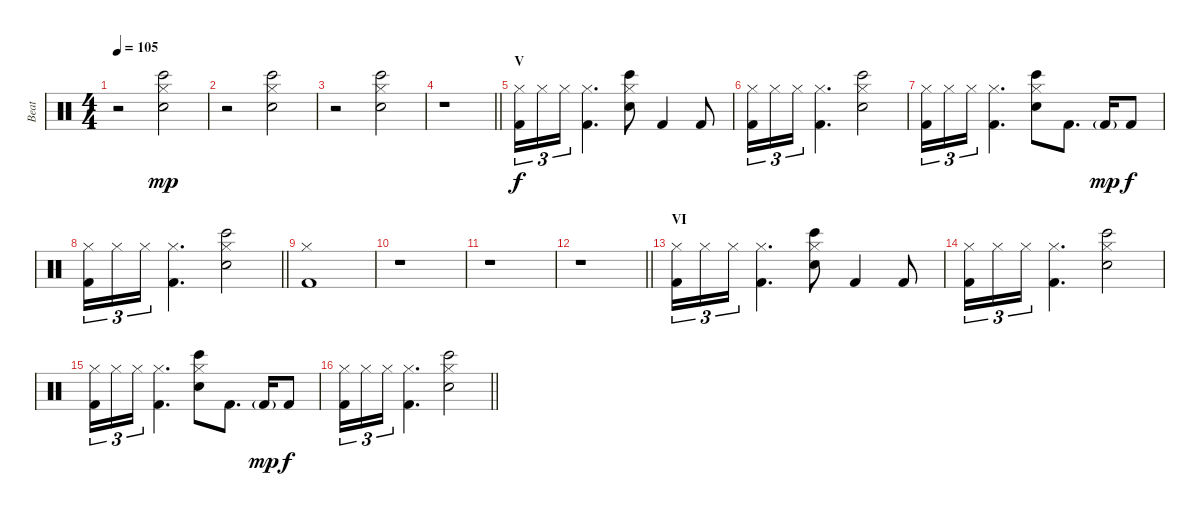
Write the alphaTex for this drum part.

\track ("Beat" "Beat") {instrument percussion}
\staff {score}
\articulation defaults
\ts (4 4)
\tempo 105
\clef neutral
\ks c
r.2{dy f} ("Hi-Hat (closed)" "Bongo High (hit)" "Snare (hit) 2").2{dy mp} |
r.2 ("Hi-Hat (closed)" "Bongo High (hit)" "Snare (hit) 2").2 |
r.2 ("Hi-Hat (closed)" "Bongo High (hit)" "Snare (hit) 2").2 |
\barLineRight lightlight
r.1 |
\section ("" "V")
("Hi-Hat (closed)" "Kick (hit) 2").16{tu (3 2) dy f} "Hi-Hat (closed)".16{tu (3 2)} "Hi-Hat (closed)".16{tu (3 2)} ("Hi-Hat (closed)" "Kick (hit) 2").4{d} ("Hi-Hat (closed)" "Snare (hit) 2" "Bongo High (hit)").8 "Kick (hit) 2".4 "Kick (hit) 2".8 |
("Hi-Hat (closed)" "Kick (hit) 2").16{tu (3 2)} "Hi-Hat (closed)".16{tu (3 2)} "Hi-Hat (closed)".16{tu (3 2)} ("Hi-Hat (closed)" "Kick (hit) 2").4{d} ("Hi-Hat (closed)" "Snare (hit) 2" "Bongo High (hit)").2 |
("Hi-Hat (closed)" "Kick (hit) 2").16{tu (3 2)} "Hi-Hat (closed)".16{tu (3 2)} "Hi-Hat (closed)".16{tu (3 2)} ("Hi-Hat (closed)" "Kick (hit) 2").4{d} ("Hi-Hat (closed)" "Snare (hit) 2" "Bongo High (hit)").8 "Kick (hit) 2".8{d} "Kick (hit) 2"{g}.16{dy mp} "Kick (hit) 2".8{dy f} |
\barLineRight lightlight
("Hi-Hat (closed)" "Kick (hit) 2").16{tu (3 2)} "Hi-Hat (closed)".16{tu (3 2)} "Hi-Hat (closed)".16{tu (3 2)} ("Hi-Hat (closed)" "Kick (hit) 2").4{d} ("Hi-Hat (closed)" "Snare (hit) 2" "Bongo High (hit)").2 |
("Hi-Hat (closed)" "Kick (hit) 2").1 |
r.1 |
r.1 |
\barLineRight lightlight
r.1 |
\section ("" "VI")
("Hi-Hat (closed)" "Kick (hit) 2").16{tu (3 2)} "Hi-Hat (closed)".16{tu (3 2)} "Hi-Hat (closed)".16{tu (3 2)} ("Hi-Hat (closed)" "Kick (hit) 2").4{d} ("Hi-Hat (closed)" "Snare (hit) 2" "Bongo High (hit)").8 "Kick (hit) 2".4 "Kick (hit) 2".8 |
("Hi-Hat (closed)" "Kick (hit) 2").16{tu (3 2)} "Hi-Hat (closed)".16{tu (3 2)} "Hi-Hat (closed)".16{tu (3 2)} ("Hi-Hat (closed)" "Kick (hit) 2").4{d} ("Hi-Hat (closed)" "Snare (hit) 2" "Bongo High (hit)").2 |
("Hi-Hat (closed)" "Kick (hit) 2").16{tu (3 2)} "Hi-Hat (closed)".16{tu (3 2)} "Hi-Hat (closed)".16{tu (3 2)} ("Hi-Hat (closed)" "Kick (hit) 2").4{d} ("Hi-Hat (closed)" "Snare (hit) 2" "Bongo High (hit)").8 "Kick (hit) 2".8{d} "Kick (hit) 2"{g}.16{dy mp} "Kick (hit) 2".8{dy f} |
\barLineRight lightlight
("Hi-Hat (closed)" "Kick (hit) 2").16{tu (3 2)} "Hi-Hat (closed)".16{tu (3 2)} "Hi-Hat (closed)".16{tu (3 2)} ("Hi-Hat (closed)" "Kick (hit) 2").4{d} ("Hi-Hat (closed)" "Snare (hit) 2" "Bongo High (hit)").2
